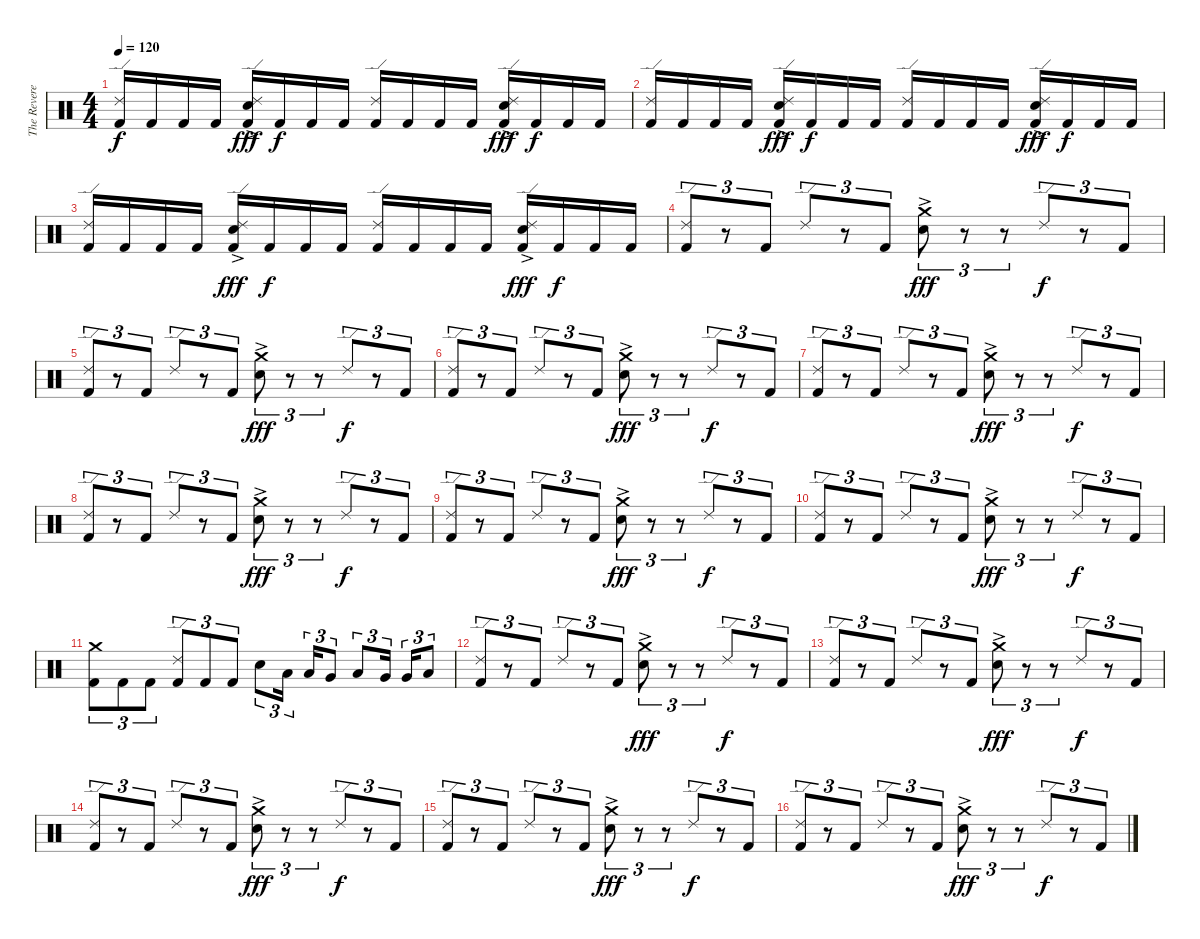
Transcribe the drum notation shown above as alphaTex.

\track ("The Reverend" "The Revere") {instrument percussion}
\staff {score}
\articulation defaults
\ts (4 4)
\tempo 120
\clef neutral
\ks c
("Ride (edge) 2" "Kick (hit) 2").16{dy f} "Kick (hit) 2".16 "Kick (hit) 2".16 "Kick (hit) 2".16 ("Ride (edge) 2" "Electric Snare (hit)"{ac} "Kick (hit) 2").16{dy fff} "Kick (hit) 2".16{dy f} "Kick (hit) 2".16 "Kick (hit) 2".16 ("Ride (edge) 2" "Kick (hit) 2").16 "Kick (hit) 2".16 "Kick (hit) 2".16 "Kick (hit) 2".16 ("Ride (edge) 2" "Electric Snare (hit)"{ac} "Kick (hit) 2").16{dy fff} "Kick (hit) 2".16{dy f} "Kick (hit) 2".16 "Kick (hit) 2".16 |
("Ride (edge) 2" "Kick (hit) 2").16 "Kick (hit) 2".16 "Kick (hit) 2".16 "Kick (hit) 2".16 ("Ride (edge) 2" "Electric Snare (hit)"{ac} "Kick (hit) 2").16{dy fff} "Kick (hit) 2".16{dy f} "Kick (hit) 2".16 "Kick (hit) 2".16 ("Ride (edge) 2" "Kick (hit) 2").16 "Kick (hit) 2".16 "Kick (hit) 2".16 "Kick (hit) 2".16 ("Ride (edge) 2" "Electric Snare (hit)"{ac} "Kick (hit) 2").16{dy fff} "Kick (hit) 2".16{dy f} "Kick (hit) 2".16 "Kick (hit) 2".16 |
("Ride (edge) 2" "Kick (hit) 2").16 "Kick (hit) 2".16 "Kick (hit) 2".16 "Kick (hit) 2".16 ("Ride (edge) 2" "Electric Snare (hit)"{ac} "Kick (hit) 2").16{dy fff} "Kick (hit) 2".16{dy f} "Kick (hit) 2".16 "Kick (hit) 2".16 ("Ride (edge) 2" "Kick (hit) 2").16 "Kick (hit) 2".16 "Kick (hit) 2".16 "Kick (hit) 2".16 ("Ride (edge) 2" "Electric Snare (hit)"{ac} "Kick (hit) 2").16{dy fff} "Kick (hit) 2".16{dy f} "Kick (hit) 2".16 "Kick (hit) 2".16 |
("Ride (edge) 2" "Kick (hit) 2").8{tu (3 2)} r.8{tu (3 2)} "Kick (hit) 2".8{tu (3 2)} "Ride (edge) 2".8{tu (3 2)} r.8{tu (3 2)} "Kick (hit) 2".8{tu (3 2)} ("Crash medium (hit)" "Electric Snare (hit)"{ac}).8{tu (3 2) dy fff} r.8{tu (3 2)} r.8{tu (3 2)} "Ride (edge) 2".8{tu (3 2) dy f} r.8{tu (3 2)} "Kick (hit) 2".8{tu (3 2)} |
("Ride (edge) 2" "Kick (hit) 2").8{tu (3 2)} r.8{tu (3 2)} "Kick (hit) 2".8{tu (3 2)} "Ride (edge) 2".8{tu (3 2)} r.8{tu (3 2)} "Kick (hit) 2".8{tu (3 2)} ("Crash medium (hit)" "Electric Snare (hit)"{ac}).8{tu (3 2) dy fff} r.8{tu (3 2)} r.8{tu (3 2)} "Ride (edge) 2".8{tu (3 2) dy f} r.8{tu (3 2)} "Kick (hit) 2".8{tu (3 2)} |
("Ride (edge) 2" "Kick (hit) 2").8{tu (3 2)} r.8{tu (3 2)} "Kick (hit) 2".8{tu (3 2)} "Ride (edge) 2".8{tu (3 2)} r.8{tu (3 2)} "Kick (hit) 2".8{tu (3 2)} ("Crash medium (hit)" "Electric Snare (hit)"{ac}).8{tu (3 2) dy fff} r.8{tu (3 2)} r.8{tu (3 2)} "Ride (edge) 2".8{tu (3 2) dy f} r.8{tu (3 2)} "Kick (hit) 2".8{tu (3 2)} |
("Ride (edge) 2" "Kick (hit) 2").8{tu (3 2)} r.8{tu (3 2)} "Kick (hit) 2".8{tu (3 2)} "Ride (edge) 2".8{tu (3 2)} r.8{tu (3 2)} "Kick (hit) 2".8{tu (3 2)} ("Crash medium (hit)" "Electric Snare (hit)"{ac}).8{tu (3 2) dy fff} r.8{tu (3 2)} r.8{tu (3 2)} "Ride (edge) 2".8{tu (3 2) dy f} r.8{tu (3 2)} "Kick (hit) 2".8{tu (3 2)} |
("Ride (edge) 2" "Kick (hit) 2").8{tu (3 2)} r.8{tu (3 2)} "Kick (hit) 2".8{tu (3 2)} "Ride (edge) 2".8{tu (3 2)} r.8{tu (3 2)} "Kick (hit) 2".8{tu (3 2)} ("Crash medium (hit)" "Electric Snare (hit)"{ac}).8{tu (3 2) dy fff} r.8{tu (3 2)} r.8{tu (3 2)} "Ride (edge) 2".8{tu (3 2) dy f} r.8{tu (3 2)} "Kick (hit) 2".8{tu (3 2)} |
("Ride (edge) 2" "Kick (hit) 2").8{tu (3 2)} r.8{tu (3 2)} "Kick (hit) 2".8{tu (3 2)} "Ride (edge) 2".8{tu (3 2)} r.8{tu (3 2)} "Kick (hit) 2".8{tu (3 2)} ("Crash medium (hit)" "Electric Snare (hit)"{ac}).8{tu (3 2) dy fff} r.8{tu (3 2)} r.8{tu (3 2)} "Ride (edge) 2".8{tu (3 2) dy f} r.8{tu (3 2)} "Kick (hit) 2".8{tu (3 2)} |
("Ride (edge) 2" "Kick (hit) 2").8{tu (3 2)} r.8{tu (3 2)} "Kick (hit) 2".8{tu (3 2)} "Ride (edge) 2".8{tu (3 2)} r.8{tu (3 2)} "Kick (hit) 2".8{tu (3 2)} ("Crash medium (hit)" "Electric Snare (hit)"{ac}).8{tu (3 2) dy fff} r.8{tu (3 2)} r.8{tu (3 2)} "Ride (edge) 2".8{tu (3 2) dy f} r.8{tu (3 2)} "Kick (hit) 2".8{tu (3 2)} |
("Crash medium (hit)" "Kick (hit) 2").8{tu (3 2)} "Kick (hit) 2".8{tu (3 2)} "Kick (hit) 2".8{tu (3 2)} ("Ride (edge) 2" "Kick (hit) 2").8{tu (3 2)} "Kick (hit) 2".8{tu (3 2)} "Kick (hit) 2".8{tu (3 2)} "Electric Snare (hit)".8{tu (3 2)} "Low Tom (hit)".16{tu (3 2) beam splitsecondary} "Low Tom (hit)".16{tu (3 2)} "Very Low Tom (hit)".8{tu (3 2)} "Low Tom (hit)".8{tu (3 2)} "Very Low Tom (hit)".16{tu (3 2) beam splitsecondary} "Very Low Tom (hit)".16{tu (3 2)} "Low Floor Tom (hit)".8{tu (3 2)} |
("Ride (edge) 2" "Kick (hit) 2").8{tu (3 2)} r.8{tu (3 2)} "Kick (hit) 2".8{tu (3 2)} "Ride (edge) 2".8{tu (3 2)} r.8{tu (3 2)} "Kick (hit) 2".8{tu (3 2)} ("Crash medium (hit)" "Electric Snare (hit)"{ac}).8{tu (3 2) dy fff} r.8{tu (3 2)} r.8{tu (3 2)} "Ride (edge) 2".8{tu (3 2) dy f} r.8{tu (3 2)} "Kick (hit) 2".8{tu (3 2)} |
("Ride (edge) 2" "Kick (hit) 2").8{tu (3 2)} r.8{tu (3 2)} "Kick (hit) 2".8{tu (3 2)} "Ride (edge) 2".8{tu (3 2)} r.8{tu (3 2)} "Kick (hit) 2".8{tu (3 2)} ("Crash medium (hit)" "Electric Snare (hit)"{ac}).8{tu (3 2) dy fff} r.8{tu (3 2)} r.8{tu (3 2)} "Ride (edge) 2".8{tu (3 2) dy f} r.8{tu (3 2)} "Kick (hit) 2".8{tu (3 2)} |
("Ride (edge) 2" "Kick (hit) 2").8{tu (3 2)} r.8{tu (3 2)} "Kick (hit) 2".8{tu (3 2)} "Ride (edge) 2".8{tu (3 2)} r.8{tu (3 2)} "Kick (hit) 2".8{tu (3 2)} ("Crash medium (hit)" "Electric Snare (hit)"{ac}).8{tu (3 2) dy fff} r.8{tu (3 2)} r.8{tu (3 2)} "Ride (edge) 2".8{tu (3 2) dy f} r.8{tu (3 2)} "Kick (hit) 2".8{tu (3 2)} |
("Ride (edge) 2" "Kick (hit) 2").8{tu (3 2)} r.8{tu (3 2)} "Kick (hit) 2".8{tu (3 2)} "Ride (edge) 2".8{tu (3 2)} r.8{tu (3 2)} "Kick (hit) 2".8{tu (3 2)} ("Crash medium (hit)" "Electric Snare (hit)"{ac}).8{tu (3 2) dy fff} r.8{tu (3 2)} r.8{tu (3 2)} "Ride (edge) 2".8{tu (3 2) dy f} r.8{tu (3 2)} "Kick (hit) 2".8{tu (3 2)} |
("Ride (edge) 2" "Kick (hit) 2").8{tu (3 2)} r.8{tu (3 2)} "Kick (hit) 2".8{tu (3 2)} "Ride (edge) 2".8{tu (3 2)} r.8{tu (3 2)} "Kick (hit) 2".8{tu (3 2)} ("Crash medium (hit)" "Electric Snare (hit)"{ac}).8{tu (3 2) dy fff} r.8{tu (3 2)} r.8{tu (3 2)} "Ride (edge) 2".8{tu (3 2) dy f} r.8{tu (3 2)} "Kick (hit) 2".8{tu (3 2)}
